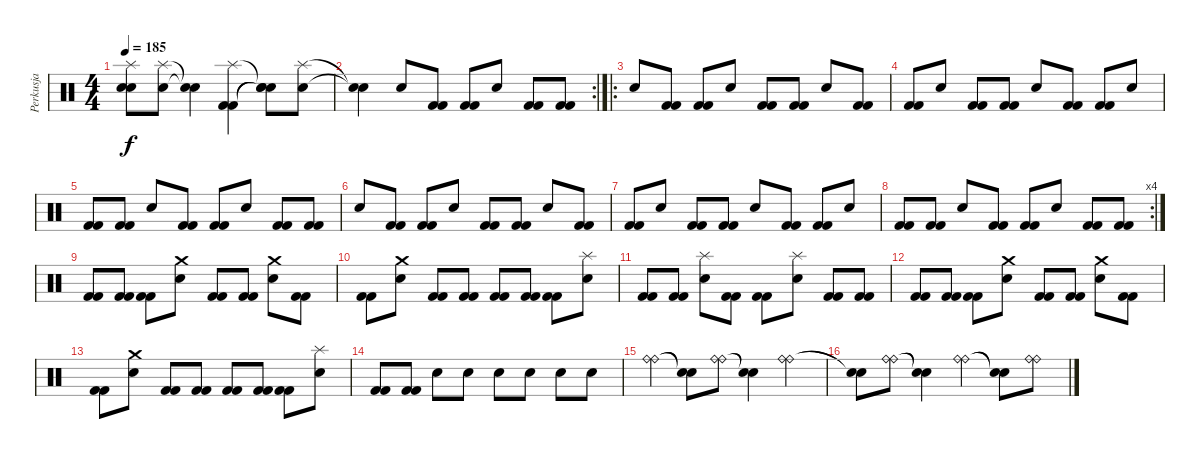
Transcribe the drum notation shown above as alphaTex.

\track ("Perkusja" "Perkusja") {instrument percussion}
\staff {score}
\articulation defaults
\ts (4 4)
\tempo 185
\clef neutral
\ks c
("Splash (hit)"{t} "Snare (hit)"{t} "Snare (hit)"{t}).8{dy f} ("Splash (hit)" "Snare (hit) 2").8 ("Snare (hit)"{t} "Snare (hit)"{t}).4 ("Splash (hit)" "Kick (hit) 2" "Kick (hit) 2").4 ("Snare (hit)"{t} "Snare (hit)"{t} "Snare (hit)"{t}).8 ("Splash (hit)" "Snare (hit) 2").8 |
\rc 2
("Snare (hit)"{t} "Snare (hit)"{t}).4 "Snare (hit) 2".8 ("Kick (hit) 2" "Kick (hit) 2").8 ("Kick (hit) 2" "Kick (hit) 2").8 "Snare (hit) 2".8 ("Kick (hit) 2" "Kick (hit) 2").8 ("Kick (hit) 2" "Kick (hit) 2").8 |
\ro "Snare (hit) 2".8
("Kick (hit) 2" "Kick (hit) 2").8 ("Kick (hit) 2" "Kick (hit) 2").8 "Snare (hit) 2".8 ("Kick (hit) 2" "Kick (hit) 2").8 ("Kick (hit) 2" "Kick (hit) 2").8 "Snare (hit) 2".8 ("Kick (hit) 2" "Kick (hit) 2").8 |
("Kick (hit) 2" "Kick (hit) 2").8 "Snare (hit) 2".8 ("Kick (hit) 2" "Kick (hit) 2").8 ("Kick (hit) 2" "Kick (hit) 2").8 "Snare (hit) 2".8 ("Kick (hit) 2" "Kick (hit) 2").8 ("Kick (hit) 2" "Kick (hit) 2").8 "Snare (hit) 2".8 |
("Kick (hit) 2" "Kick (hit) 2").8 ("Kick (hit) 2" "Kick (hit) 2").8 "Snare (hit) 2".8 ("Kick (hit) 2" "Kick (hit) 2").8 ("Kick (hit) 2" "Kick (hit) 2").8 "Snare (hit) 2".8 ("Kick (hit) 2" "Kick (hit) 2").8 ("Kick (hit) 2" "Kick (hit) 2").8 |
"Snare (hit) 2".8 ("Kick (hit) 2" "Kick (hit) 2").8 ("Kick (hit) 2" "Kick (hit) 2").8 "Snare (hit) 2".8 ("Kick (hit) 2" "Kick (hit) 2").8 ("Kick (hit) 2" "Kick (hit) 2").8 "Snare (hit) 2".8 ("Kick (hit) 2" "Kick (hit) 2").8 |
("Kick (hit) 2" "Kick (hit) 2").8 "Snare (hit) 2".8 ("Kick (hit) 2" "Kick (hit) 2").8 ("Kick (hit) 2" "Kick (hit) 2").8 "Snare (hit) 2".8 ("Kick (hit) 2" "Kick (hit) 2").8 ("Kick (hit) 2" "Kick (hit) 2").8 "Snare (hit) 2".8 |
\rc 4
("Kick (hit) 2" "Kick (hit) 2").8 ("Kick (hit) 2" "Kick (hit) 2").8 "Snare (hit) 2".8 ("Kick (hit) 2" "Kick (hit) 2").8 ("Kick (hit) 2" "Kick (hit) 2").8 "Snare (hit) 2".8 ("Kick (hit) 2" "Kick (hit) 2").8 ("Kick (hit) 2" "Kick (hit) 2").8 |
("Kick (hit) 2" "Kick (hit) 2").8 ("Kick (hit) 2" "Kick (hit) 2").8 ("Kick (hit) 2" "Kick (hit) 2").8 ("Crash medium (hit)" "Snare (hit) 2").8 ("Kick (hit) 2" "Kick (hit) 2").8 ("Kick (hit) 2" "Kick (hit) 2").8 ("Crash medium (hit)" "Snare (hit) 2").8 ("Kick (hit) 2" "Kick (hit) 2").8 |
("Kick (hit) 2" "Kick (hit) 2").8 ("Crash medium (hit)" "Snare (hit) 2").8 ("Kick (hit) 2" "Kick (hit) 2").8 ("Kick (hit) 2" "Kick (hit) 2").8 ("Kick (hit) 2" "Kick (hit) 2").8 ("Kick (hit) 2" "Kick (hit) 2").8 ("Kick (hit) 2" "Kick (hit) 2").8 ("Splash (hit)" "Snare (hit) 2").8 |
("Kick (hit) 2" "Kick (hit) 2").8 ("Kick (hit) 2" "Kick (hit) 2").8 ("Splash (hit)" "Snare (hit) 2").8 ("Kick (hit) 2" "Kick (hit) 2").8 ("Kick (hit) 2" "Kick (hit) 2").8 ("Splash (hit)" "Snare (hit) 2").8 ("Kick (hit) 2" "Kick (hit) 2").8 ("Kick (hit) 2" "Kick (hit) 2").8 |
("Kick (hit) 2" "Kick (hit) 2").8 ("Kick (hit) 2" "Kick (hit) 2").8 ("Kick (hit) 2" "Kick (hit) 2").8 ("Crash medium (hit)" "Snare (hit) 2").8 ("Kick (hit) 2" "Kick (hit) 2").8 ("Kick (hit) 2" "Kick (hit) 2").8 ("Crash medium (hit)" "Snare (hit) 2").8 ("Kick (hit) 2" "Kick (hit) 2").8 |
("Kick (hit) 2" "Kick (hit) 2").8 ("Crash medium (hit)" "Snare (hit) 2").8 ("Kick (hit) 2" "Kick (hit) 2").8 ("Kick (hit) 2" "Kick (hit) 2").8 ("Kick (hit) 2" "Kick (hit) 2").8 ("Kick (hit) 2" "Kick (hit) 2").8 ("Kick (hit) 2" "Kick (hit) 2").8 ("Splash (hit)" "Snare (hit) 2").8 |
("Kick (hit) 2" "Kick (hit) 2").8 ("Kick (hit) 2" "Kick (hit) 2").8 "Snare (hit) 2".8 "Snare (hit) 2".8 "Snare (hit) 2".8 "Snare (hit) 2".8 "Snare (hit) 2".8 "Snare (hit) 2".8 |
("Ride (bell)" "Ride (bell)").4 ("Snare (hit)"{t} "Snare (hit)"{t}).8 ("Ride (bell)" "Ride (bell)").8 ("Snare (hit)"{t} "Snare (hit)"{t}).4 ("Ride (bell)" "Ride (bell)").4 |
("Snare (hit)"{t} "Snare (hit)"{t}).8 ("Ride (bell)" "Ride (bell)").8 ("Snare (hit)"{t} "Snare (hit)"{t}).4 ("Ride (bell)" "Ride (bell)").4 ("Snare (hit)"{t} "Snare (hit)"{t}).8 ("Ride (bell)" "Ride (bell)").8
